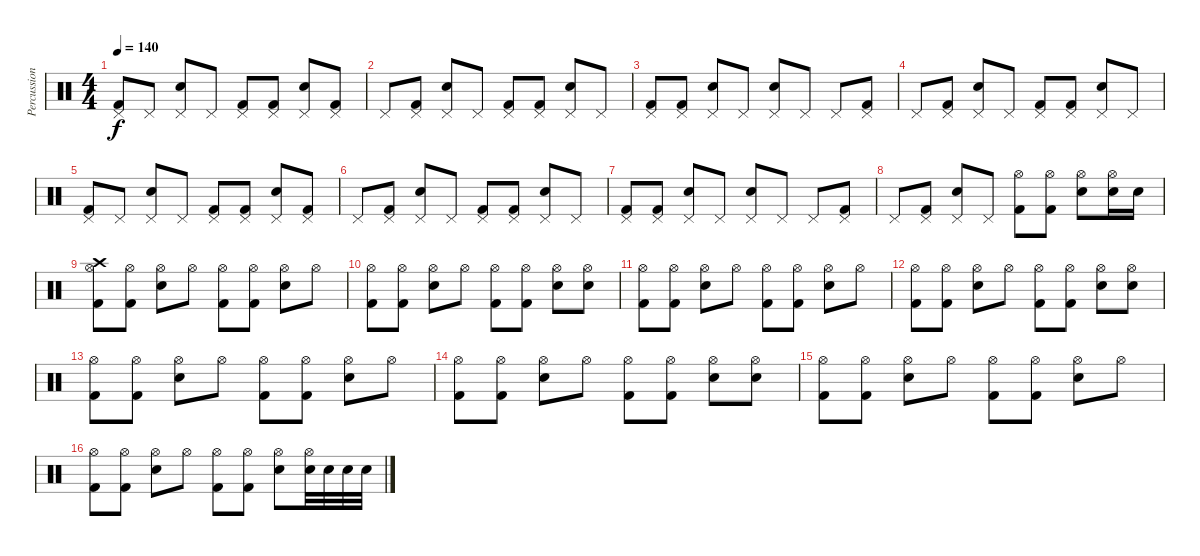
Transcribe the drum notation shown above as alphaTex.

\track ("Percussion" "Percussion") {instrument percussion}
\staff {score}
\articulation defaults
\ts (4 4)
\tempo 140
\clef neutral
\ks c
("Kick (hit) 2" "Pedal Hi-Hat (hit)").8{dy f} "Pedal Hi-Hat (hit)".8 ("Snare (hit) 2" "Pedal Hi-Hat (hit)").8 "Pedal Hi-Hat (hit)".8 ("Kick (hit) 2" "Pedal Hi-Hat (hit)").8 ("Kick (hit) 2" "Pedal Hi-Hat (hit)").8 ("Snare (hit) 2" "Pedal Hi-Hat (hit)").8 ("Kick (hit) 2" "Pedal Hi-Hat (hit)").8 |
"Pedal Hi-Hat (hit)".8 ("Kick (hit) 2" "Pedal Hi-Hat (hit)").8 ("Snare (hit) 2" "Pedal Hi-Hat (hit)").8 "Pedal Hi-Hat (hit)".8 ("Kick (hit) 2" "Pedal Hi-Hat (hit)").8 ("Kick (hit) 2" "Pedal Hi-Hat (hit)").8 ("Snare (hit) 2" "Pedal Hi-Hat (hit)").8 "Pedal Hi-Hat (hit)".8 |
("Kick (hit) 2" "Pedal Hi-Hat (hit)").8 ("Kick (hit) 2" "Pedal Hi-Hat (hit)").8 ("Snare (hit) 2" "Pedal Hi-Hat (hit)").8 "Pedal Hi-Hat (hit)".8 ("Snare (hit) 2" "Pedal Hi-Hat (hit)").8 "Pedal Hi-Hat (hit)".8 "Pedal Hi-Hat (hit)".8 ("Kick (hit) 2" "Pedal Hi-Hat (hit)").8 |
"Pedal Hi-Hat (hit)".8 ("Kick (hit) 2" "Pedal Hi-Hat (hit)").8 ("Snare (hit) 2" "Pedal Hi-Hat (hit)").8 "Pedal Hi-Hat (hit)".8 ("Kick (hit) 2" "Pedal Hi-Hat (hit)").8 ("Kick (hit) 2" "Pedal Hi-Hat (hit)").8 ("Snare (hit) 2" "Pedal Hi-Hat (hit)").8 "Pedal Hi-Hat (hit)".8 |
("Kick (hit) 2" "Pedal Hi-Hat (hit)").8 "Pedal Hi-Hat (hit)".8 ("Snare (hit) 2" "Pedal Hi-Hat (hit)").8 "Pedal Hi-Hat (hit)".8 ("Kick (hit) 2" "Pedal Hi-Hat (hit)").8 ("Kick (hit) 2" "Pedal Hi-Hat (hit)").8 ("Snare (hit) 2" "Pedal Hi-Hat (hit)").8 ("Kick (hit) 2" "Pedal Hi-Hat (hit)").8 |
"Pedal Hi-Hat (hit)".8 ("Kick (hit) 2" "Pedal Hi-Hat (hit)").8 ("Snare (hit) 2" "Pedal Hi-Hat (hit)").8 "Pedal Hi-Hat (hit)".8 ("Kick (hit) 2" "Pedal Hi-Hat (hit)").8 ("Kick (hit) 2" "Pedal Hi-Hat (hit)").8 ("Snare (hit) 2" "Pedal Hi-Hat (hit)").8 "Pedal Hi-Hat (hit)".8 |
("Kick (hit) 2" "Pedal Hi-Hat (hit)").8 ("Kick (hit) 2" "Pedal Hi-Hat (hit)").8 ("Snare (hit) 2" "Pedal Hi-Hat (hit)").8 "Pedal Hi-Hat (hit)".8 ("Snare (hit) 2" "Pedal Hi-Hat (hit)").8 "Pedal Hi-Hat (hit)".8 "Pedal Hi-Hat (hit)".8 ("Kick (hit) 2" "Pedal Hi-Hat (hit)").8 |
"Pedal Hi-Hat (hit)".8 ("Kick (hit) 2" "Pedal Hi-Hat (hit)").8 ("Snare (hit) 2" "Pedal Hi-Hat (hit)").8 "Pedal Hi-Hat (hit)".8 ("Kick (hit) 2" "Hi-Hat (open)").8 ("Kick (hit) 2" "Hi-Hat (open)").8 ("Snare (hit) 2" "Hi-Hat (open)").8 ("Snare (hit) 2" "Hi-Hat (open)").16 "Snare (hit) 2".16 |
("Kick (hit) 2" "Hi-Hat (open)" "Crash high (hit)").8 ("Kick (hit) 2" "Hi-Hat (open)").8 ("Snare (hit) 2" "Hi-Hat (open)").8 "Hi-Hat (open)".8 ("Kick (hit) 2" "Hi-Hat (open)").8 ("Kick (hit) 2" "Hi-Hat (open)").8 ("Snare (hit) 2" "Hi-Hat (open)").8 "Hi-Hat (open)".8 |
("Kick (hit) 2" "Hi-Hat (open)").8 ("Kick (hit) 2" "Hi-Hat (open)").8 ("Snare (hit) 2" "Hi-Hat (open)").8 "Hi-Hat (open)".8 ("Kick (hit) 2" "Hi-Hat (open)").8 ("Kick (hit) 2" "Hi-Hat (open)").8 ("Snare (hit) 2" "Hi-Hat (open)").8 ("Snare (hit) 2" "Hi-Hat (open)").8 |
("Kick (hit) 2" "Hi-Hat (open)").8 ("Kick (hit) 2" "Hi-Hat (open)").8 ("Snare (hit) 2" "Hi-Hat (open)").8 "Hi-Hat (open)".8 ("Kick (hit) 2" "Hi-Hat (open)").8 ("Kick (hit) 2" "Hi-Hat (open)").8 ("Snare (hit) 2" "Hi-Hat (open)").8 "Hi-Hat (open)".8 |
("Kick (hit) 2" "Hi-Hat (open)").8 ("Kick (hit) 2" "Hi-Hat (open)").8 ("Snare (hit) 2" "Hi-Hat (open)").8 "Hi-Hat (open)".8 ("Kick (hit) 2" "Hi-Hat (open)").8 ("Kick (hit) 2" "Hi-Hat (open)").8 ("Snare (hit) 2" "Hi-Hat (open)").8 ("Snare (hit) 2" "Hi-Hat (open)").8 |
("Kick (hit) 2" "Hi-Hat (open)").8 ("Kick (hit) 2" "Hi-Hat (open)").8 ("Snare (hit) 2" "Hi-Hat (open)").8 "Hi-Hat (open)".8 ("Kick (hit) 2" "Hi-Hat (open)").8 ("Kick (hit) 2" "Hi-Hat (open)").8 ("Snare (hit) 2" "Hi-Hat (open)").8 "Hi-Hat (open)".8 |
("Kick (hit) 2" "Hi-Hat (open)").8 ("Kick (hit) 2" "Hi-Hat (open)").8 ("Snare (hit) 2" "Hi-Hat (open)").8 "Hi-Hat (open)".8 ("Kick (hit) 2" "Hi-Hat (open)").8 ("Kick (hit) 2" "Hi-Hat (open)").8 ("Snare (hit) 2" "Hi-Hat (open)").8 ("Snare (hit) 2" "Hi-Hat (open)").8 |
("Kick (hit) 2" "Hi-Hat (open)").8 ("Kick (hit) 2" "Hi-Hat (open)").8 ("Snare (hit) 2" "Hi-Hat (open)").8 "Hi-Hat (open)".8 ("Kick (hit) 2" "Hi-Hat (open)").8 ("Kick (hit) 2" "Hi-Hat (open)").8 ("Snare (hit) 2" "Hi-Hat (open)").8 "Hi-Hat (open)".8 |
("Kick (hit) 2" "Hi-Hat (open)").8 ("Kick (hit) 2" "Hi-Hat (open)").8 ("Snare (hit) 2" "Hi-Hat (open)").8 "Hi-Hat (open)".8 ("Kick (hit) 2" "Hi-Hat (open)").8 ("Kick (hit) 2" "Hi-Hat (open)").8 ("Snare (hit) 2" "Hi-Hat (open)").8 ("Snare (hit) 2" "Hi-Hat (open)").32 "Snare (hit) 2".32 "Snare (hit) 2".32 "Snare (hit) 2".32
